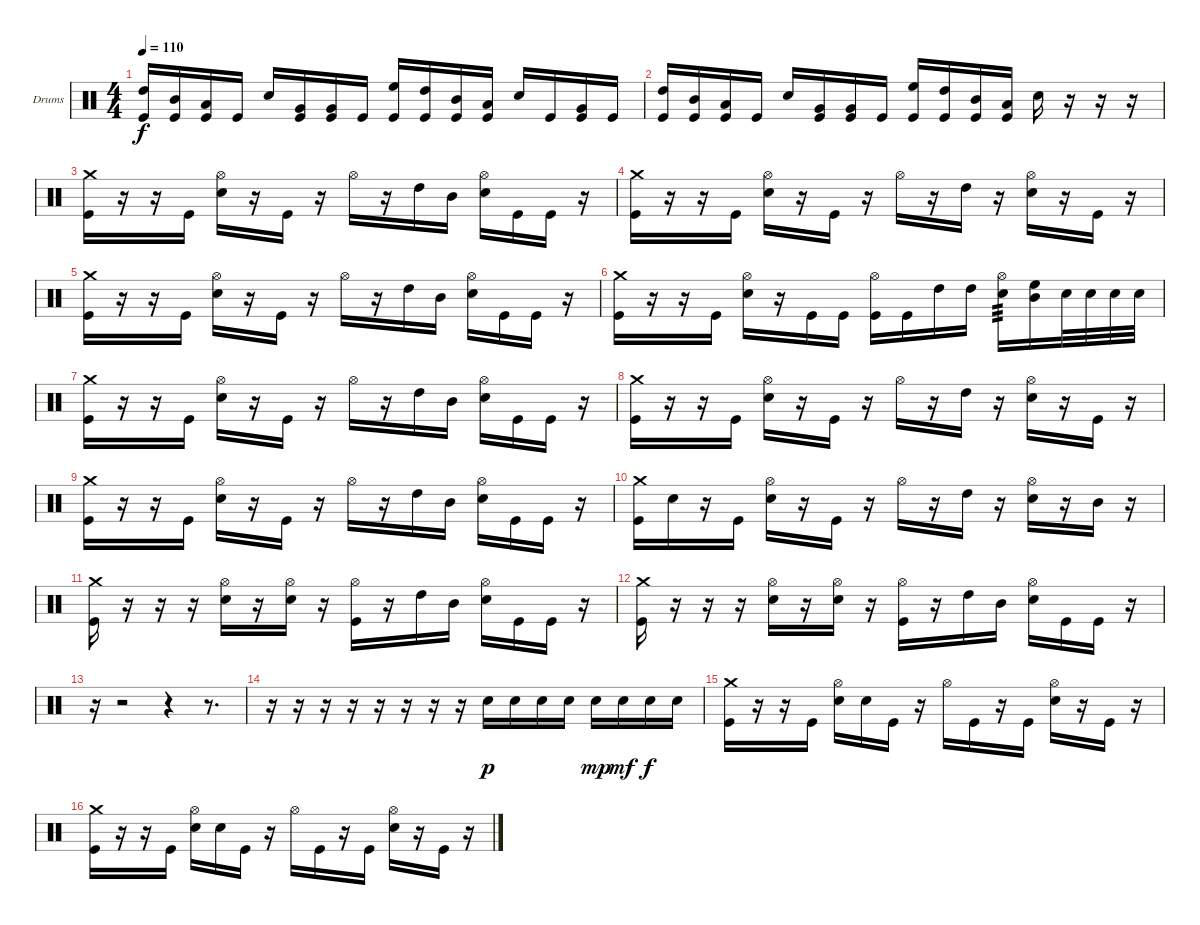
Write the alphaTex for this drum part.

\bracketExtendMode groupsimilarinstruments
\firstSystemTrackNameOrientation horizontal
\otherSystemsTrackNameOrientation horizontal
\track ("Drumkit" "Drums") {instrument percussion}
\staff {score}
\articulation defaults
\ts (4 4)
\tempo 110
\clef neutral
\ks c
("High Tom (hit)" "Kick (hit)").16{dy f} ("Mid Tom (hit)" "Kick (hit)").16 ("Low Tom (hit)" "Kick (hit)").16 "Kick (hit)".16 "Snare (hit) 2".16 ("Very Low Tom (hit)" "Kick (hit)").16 ("Very Low Tom (hit)" "Kick (hit)").16 "Kick (hit)".16 ("High Floor Tom (hit)" "Kick (hit)").16 ("High Tom (hit)" "Kick (hit)").16 ("Mid Tom (hit)" "Kick (hit)").16 ("Low Tom (hit)" "Kick (hit)").16 "Snare (hit) 2".16 "Kick (hit)".16 ("Very Low Tom (hit)" "Kick (hit)").16 "Kick (hit)".16 |
("High Tom (hit)" "Kick (hit)").16 ("Mid Tom (hit)" "Kick (hit)").16 ("Low Tom (hit)" "Kick (hit)").16 "Kick (hit)".16 "Snare (hit) 2".16 ("Very Low Tom (hit)" "Kick (hit)").16 ("Very Low Tom (hit)" "Kick (hit)").16 "Kick (hit)".16 ("High Floor Tom (hit)" "Kick (hit)").16 ("High Tom (hit)" "Kick (hit)").16 ("Mid Tom (hit)" "Kick (hit)").16 ("Low Tom (hit)" "Kick (hit)").16 "Snare (hit) 2".16 r.16 r.16 r.16 |
("Crash medium (hit)" "Kick (hit)").16 r.16 r.16 "Kick (hit)".16 ("Hi-Hat (open)" "Snare (hit) 2").16 r.16 "Kick (hit)".16 r.16 "Hi-Hat (open)".16 r.16 "High Tom (hit)".16 "Mid Tom (hit)".16 ("Hi-Hat (open)" "Snare (hit) 2").16 "Kick (hit)".16 "Kick (hit)".16 r.16 |
("Crash medium (hit)" "Kick (hit)").16 r.16 r.16 "Kick (hit)".16 ("Hi-Hat (open)" "Snare (hit) 2").16 r.16 "Kick (hit)".16 r.16 "Hi-Hat (open)".16 r.16 "High Tom (hit)".16 r.16 ("Hi-Hat (open)" "Snare (hit) 2").16 r.16 "Kick (hit)".16 r.16 |
("Crash medium (hit)" "Kick (hit)").16 r.16 r.16 "Kick (hit)".16 ("Hi-Hat (open)" "Snare (hit) 2").16 r.16 "Kick (hit)".16 r.16 "Hi-Hat (open)".16 r.16 "High Tom (hit)".16 "Mid Tom (hit)".16 ("Hi-Hat (open)" "Snare (hit) 2").16 "Kick (hit)".16 "Kick (hit)".16 r.16 |
("Crash medium (hit)" "Kick (hit)").16 r.16 r.16 "Kick (hit)".16 ("Hi-Hat (open)" "Snare (hit) 2").16 r.16 "Kick (hit)".16 "Kick (hit)".16 ("Hi-Hat (open)" "Kick (hit)").16 "Kick (hit)".16 "High Tom (hit)".16 "High Tom (hit)".16 ("Hi-Hat (open)" "Snare (hit) 2").16{tp 3} ("High Floor Tom (hit)" "Mid Tom (hit)").16 "Snare (hit) 2".32 "Snare (hit) 2".32 "Snare (hit) 2".32 "Snare (hit) 2".32 |
("Crash medium (hit)" "Kick (hit)").16 r.16 r.16 "Kick (hit)".16 ("Hi-Hat (open)" "Snare (hit) 2").16 r.16 "Kick (hit)".16 r.16 "Hi-Hat (open)".16 r.16 "High Tom (hit)".16 "Mid Tom (hit)".16 ("Hi-Hat (open)" "Snare (hit) 2").16 "Kick (hit)".16 "Kick (hit)".16 r.16 |
("Crash medium (hit)" "Kick (hit)").16 r.16 r.16 "Kick (hit)".16 ("Hi-Hat (open)" "Snare (hit) 2").16 r.16 "Kick (hit)".16 r.16 "Hi-Hat (open)".16 r.16 "High Tom (hit)".16 r.16 ("Hi-Hat (open)" "Snare (hit) 2").16 r.16 "Kick (hit)".16 r.16 |
("Crash medium (hit)" "Kick (hit)").16 r.16 r.16 "Kick (hit)".16 ("Hi-Hat (open)" "Snare (hit) 2").16 r.16 "Kick (hit)".16 r.16 "Hi-Hat (open)".16 r.16 "High Tom (hit)".16 "Mid Tom (hit)".16 ("Hi-Hat (open)" "Snare (hit) 2").16 "Kick (hit)".16 "Kick (hit)".16 r.16 |
("Crash medium (hit)" "Kick (hit)").16 "Snare (hit) 2".16 r.16 "Kick (hit)".16 ("Hi-Hat (open)" "Snare (hit) 2").16 r.16 "Kick (hit)".16 r.16 "Hi-Hat (open)".16 r.16 "High Tom (hit)".16 r.16 ("Hi-Hat (open)" "Snare (hit) 2").16 r.16 "Mid Tom (hit)".16 r.16 |
("Crash medium (hit)" "Kick (hit)").16 r.16 r.16 r.16 ("Hi-Hat (open)" "Snare (hit) 2").16 r.16 ("Hi-Hat (open)" "Snare (hit) 2").16 r.16 ("Hi-Hat (open)" "Kick (hit)").16 r.16 "High Tom (hit)".16 "Mid Tom (hit)".16 ("Hi-Hat (open)" "Snare (hit) 2").16 "Kick (hit)".16 "Kick (hit)".16 r.16 |
("Crash medium (hit)" "Kick (hit)").16 r.16 r.16 r.16 ("Hi-Hat (open)" "Snare (hit) 2").16 r.16 ("Hi-Hat (open)" "Snare (hit) 2").16 r.16 ("Hi-Hat (open)" "Kick (hit)").16 r.16 "High Tom (hit)".16 "Mid Tom (hit)".16 ("Hi-Hat (open)" "Snare (hit) 2").16 "Kick (hit)".16 "Kick (hit)".16 r.16 |
r.16 r.2 r.4 r.8{d} |
r.16 r.16 r.16 r.16 r.16 r.16 r.16 r.16 "Snare (hit) 2".16{dy p} "Snare (hit) 2".16 "Snare (hit) 2".16 "Snare (hit) 2".16 "Snare (hit) 2".16{dy mp} "Snare (hit) 2".16{dy mf} "Snare (hit) 2".16{dy f} "Snare (hit) 2".16 |
("Crash medium (hit)" "Kick (hit)").16 r.16 r.16 "Kick (hit)".16 ("Hi-Hat (open)" "Snare (hit) 2").16 "Snare (hit) 2".16 "Kick (hit)".16 r.16 "Hi-Hat (open)".16 "Kick (hit)".16 r.16 "Kick (hit)".16 ("Hi-Hat (open)" "Snare (hit) 2").16 r.16 "Kick (hit)".16 r.16 |
("Crash medium (hit)" "Kick (hit)").16 r.16 r.16 "Kick (hit)".16 ("Hi-Hat (open)" "Snare (hit) 2").16 "Snare (hit) 2".16 "Kick (hit)".16 r.16 "Hi-Hat (open)".16 "Kick (hit)".16 r.16 "Kick (hit)".16 ("Hi-Hat (open)" "Snare (hit) 2").16 r.16 "Kick (hit)".16 r.16
